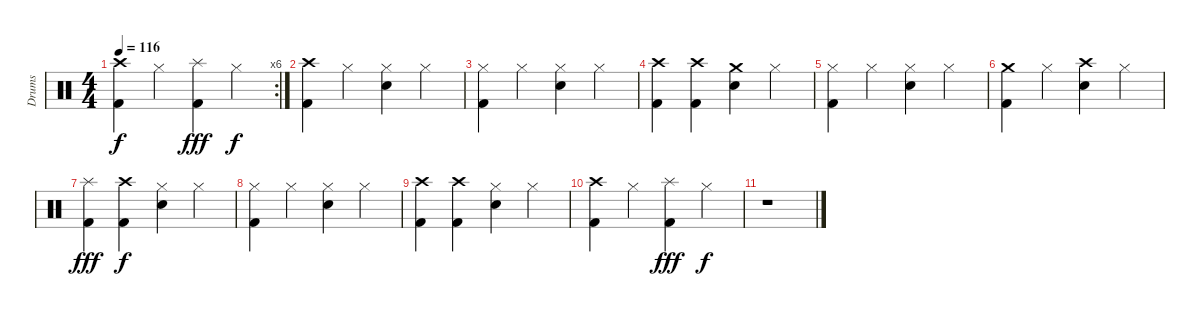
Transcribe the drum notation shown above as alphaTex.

\track ("Drums" "Drums") {instrument percussion}
\staff {score}
\articulation defaults
\rc 6
\ts (4 4)
\tempo 116
\clef neutral
\ks c
("Crash high (hit)" "Kick (hit) 2").4{dy f} "Hi-Hat (closed)".4 ("Splash (hit)" "Kick (hit) 2").4{dy fff} "Hi-Hat (closed)".4{dy f} |
("Crash high (hit)" "Kick (hit) 2").4 "Hi-Hat (closed)".4 ("Hi-Hat (closed)" "Electric Snare (hit)").4 "Hi-Hat (closed)".4 |
("Hi-Hat (closed)" "Kick (hit) 2").4 "Hi-Hat (closed)".4 ("Hi-Hat (closed)" "Electric Snare (hit)").4 "Hi-Hat (closed)".4 |
("Crash high (hit)" "Kick (hit) 2").4 ("Crash high (hit)" "Kick (hit) 2").4 ("Crash medium (hit)" "Electric Snare (hit)").4 "Hi-Hat (closed)".4 |
("Hi-Hat (closed)" "Kick (hit) 2").4 "Hi-Hat (closed)".4 ("Hi-Hat (closed)" "Electric Snare (hit)").4 "Hi-Hat (closed)".4 |
("Crash medium (hit)" "Kick (hit) 2").4 "Hi-Hat (closed)".4 ("Crash high (hit)" "Electric Snare (hit)").4 "Hi-Hat (closed)".4 |
("Splash (hit)" "Kick (hit) 2").4{dy fff} ("Crash high (hit)" "Kick (hit) 2").4{dy f} ("Hi-Hat (closed)" "Electric Snare (hit)").4 "Hi-Hat (closed)".4 |
("Hi-Hat (closed)" "Kick (hit) 2").4 "Hi-Hat (closed)".4 ("Hi-Hat (closed)" "Electric Snare (hit)").4 "Hi-Hat (closed)".4 |
("Crash high (hit)" "Kick (hit) 2").4 ("Crash high (hit)" "Kick (hit) 2").4 ("Hi-Hat (closed)" "Electric Snare (hit)").4 "Hi-Hat (closed)".4 |
("Crash high (hit)" "Kick (hit) 2").4 "Hi-Hat (closed)".4 ("Splash (hit)" "Kick (hit) 2").4{dy fff} "Hi-Hat (closed)".4{dy f} |
r.1
